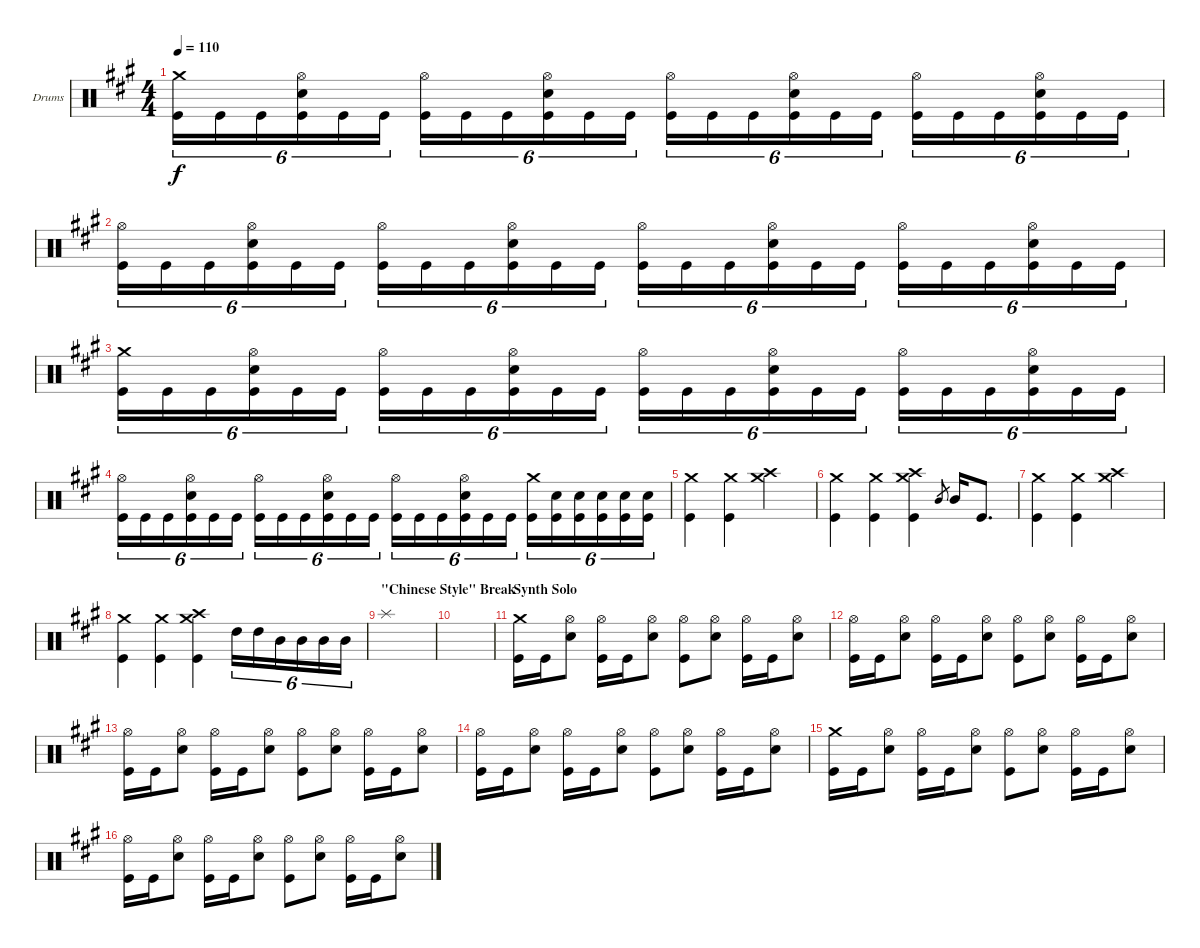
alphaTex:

\bracketExtendMode groupsimilarinstruments
\firstSystemTrackNameOrientation horizontal
\otherSystemsTrackNameOrientation horizontal
\track ("Drumkit" "Drums") {instrument percussion}
\staff {score}
\articulation defaults
\ts (4 4)
\tempo 110
\clef neutral
\ks a
("Kick (hit)" "Crash medium (hit)").16{tu (6 4) dy f} "Kick (hit)".16{tu (6 4)} "Kick (hit)".16{tu (6 4)} ("Snare (hit) 2" "Kick (hit)" "Hi-Hat (open)").16{tu (6 4)} "Kick (hit)".16{tu (6 4)} "Kick (hit)".16{tu (6 4)} ("Kick (hit)" "Hi-Hat (open)").16{tu (6 4)} "Kick (hit)".16{tu (6 4)} "Kick (hit)".16{tu (6 4)} ("Snare (hit) 2" "Kick (hit)" "Hi-Hat (open)").16{tu (6 4)} "Kick (hit)".16{tu (6 4)} "Kick (hit)".16{tu (6 4)} ("Kick (hit)" "Hi-Hat (open)").16{tu (6 4)} "Kick (hit)".16{tu (6 4)} "Kick (hit)".16{tu (6 4)} ("Snare (hit) 2" "Kick (hit)" "Hi-Hat (open)").16{tu (6 4)} "Kick (hit)".16{tu (6 4)} "Kick (hit)".16{tu (6 4)} ("Kick (hit)" "Hi-Hat (open)").16{tu (6 4)} "Kick (hit)".16{tu (6 4)} "Kick (hit)".16{tu (6 4)} ("Snare (hit) 2" "Kick (hit)" "Hi-Hat (open)").16{tu (6 4)} "Kick (hit)".16{tu (6 4)} "Kick (hit)".16{tu (6 4)} |
("Kick (hit)" "Hi-Hat (open)").16{tu (6 4)} "Kick (hit)".16{tu (6 4)} "Kick (hit)".16{tu (6 4)} ("Snare (hit) 2" "Kick (hit)" "Hi-Hat (open)").16{tu (6 4)} "Kick (hit)".16{tu (6 4)} "Kick (hit)".16{tu (6 4)} ("Kick (hit)" "Hi-Hat (open)").16{tu (6 4)} "Kick (hit)".16{tu (6 4)} "Kick (hit)".16{tu (6 4)} ("Snare (hit) 2" "Kick (hit)" "Hi-Hat (open)").16{tu (6 4)} "Kick (hit)".16{tu (6 4)} "Kick (hit)".16{tu (6 4)} ("Kick (hit)" "Hi-Hat (open)").16{tu (6 4)} "Kick (hit)".16{tu (6 4)} "Kick (hit)".16{tu (6 4)} ("Snare (hit) 2" "Kick (hit)" "Hi-Hat (open)").16{tu (6 4)} "Kick (hit)".16{tu (6 4)} "Kick (hit)".16{tu (6 4)} ("Kick (hit)" "Hi-Hat (open)").16{tu (6 4)} "Kick (hit)".16{tu (6 4)} "Kick (hit)".16{tu (6 4)} ("Snare (hit) 2" "Kick (hit)" "Hi-Hat (open)").16{tu (6 4)} "Kick (hit)".16{tu (6 4)} "Kick (hit)".16{tu (6 4)} |
("Kick (hit)" "Crash medium (hit)").16{tu (6 4)} "Kick (hit)".16{tu (6 4)} "Kick (hit)".16{tu (6 4)} ("Snare (hit) 2" "Kick (hit)" "Hi-Hat (open)").16{tu (6 4)} "Kick (hit)".16{tu (6 4)} "Kick (hit)".16{tu (6 4)} ("Kick (hit)" "Hi-Hat (open)").16{tu (6 4)} "Kick (hit)".16{tu (6 4)} "Kick (hit)".16{tu (6 4)} ("Snare (hit) 2" "Kick (hit)" "Hi-Hat (open)").16{tu (6 4)} "Kick (hit)".16{tu (6 4)} "Kick (hit)".16{tu (6 4)} ("Kick (hit)" "Hi-Hat (open)").16{tu (6 4)} "Kick (hit)".16{tu (6 4)} "Kick (hit)".16{tu (6 4)} ("Snare (hit) 2" "Kick (hit)" "Hi-Hat (open)").16{tu (6 4)} "Kick (hit)".16{tu (6 4)} "Kick (hit)".16{tu (6 4)} ("Kick (hit)" "Hi-Hat (open)").16{tu (6 4)} "Kick (hit)".16{tu (6 4)} "Kick (hit)".16{tu (6 4)} ("Snare (hit) 2" "Kick (hit)" "Hi-Hat (open)").16{tu (6 4)} "Kick (hit)".16{tu (6 4)} "Kick (hit)".16{tu (6 4)} |
("Kick (hit)" "Hi-Hat (open)").16{tu (6 4)} "Kick (hit)".16{tu (6 4)} "Kick (hit)".16{tu (6 4)} ("Snare (hit) 2" "Kick (hit)" "Hi-Hat (open)").16{tu (6 4)} "Kick (hit)".16{tu (6 4)} "Kick (hit)".16{tu (6 4)} ("Kick (hit)" "Hi-Hat (open)").16{tu (6 4)} "Kick (hit)".16{tu (6 4)} "Kick (hit)".16{tu (6 4)} ("Snare (hit) 2" "Kick (hit)" "Hi-Hat (open)").16{tu (6 4)} "Kick (hit)".16{tu (6 4)} "Kick (hit)".16{tu (6 4)} ("Kick (hit)" "Hi-Hat (open)").16{tu (6 4)} "Kick (hit)".16{tu (6 4)} "Kick (hit)".16{tu (6 4)} ("Snare (hit) 2" "Kick (hit)" "Hi-Hat (open)").16{tu (6 4)} "Kick (hit)".16{tu (6 4)} "Kick (hit)".16{tu (6 4)} ("Kick (hit)" "Crash medium (hit)").16{tu (6 4)} ("Kick (hit)" "Snare (hit) 2").16{tu (6 4)} ("Kick (hit)" "Snare (hit) 2").16{tu (6 4)} ("Snare (hit) 2" "Kick (hit)").16{tu (6 4)} ("Kick (hit)" "Snare (hit) 2").16{tu (6 4)} ("Kick (hit)" "Snare (hit) 2").16{tu (6 4)} |
("Crash medium (hit)" "Kick (hit)").4 ("Crash medium (hit)" "Kick (hit)").4 ("Crash high (hit)" "Crash medium (hit)").2 |
("Crash medium (hit)" "Kick (hit)").4 ("Crash medium (hit)" "Kick (hit)").4 ("Crash high (hit)" "Crash medium (hit)" "Kick (hit)").4 "Mid Tom (hit)".8{gr} "Mid Tom (hit)".16 "Kick (hit)".8{d} |
("Crash medium (hit)" "Kick (hit)").4 ("Crash medium (hit)" "Kick (hit)").4 ("Crash high (hit)" "Crash medium (hit)").2 |
("Crash medium (hit)" "Kick (hit)").4 ("Crash medium (hit)" "Kick (hit)").4 ("Crash high (hit)" "Crash medium (hit)" "Kick (hit)").4 "High Tom (hit)".16{tu (6 4)} "High Tom (hit)".16{tu (6 4)} "Mid Tom (hit)".16{tu (6 4)} "Mid Tom (hit)".16{tu (6 4)} "Mid Tom (hit)".16{tu (6 4)} "Mid Tom (hit)".16{tu (6 4)} |
\section ("" "\"Chinese Style\" Break")
"Splash (hit)".1 |
|
\section ("" "Synth Solo")
("Crash medium (hit)" "Kick (hit)").16 "Kick (hit)".16 ("Snare (hit) 2" "Hi-Hat (open)").8 ("Kick (hit)" "Hi-Hat (open)").16 "Kick (hit)".16 ("Snare (hit) 2" "Hi-Hat (open)").8 ("Kick (hit)" "Hi-Hat (open)").8 ("Snare (hit) 2" "Hi-Hat (open)").8 ("Kick (hit)" "Hi-Hat (open)").16 "Kick (hit)".16 ("Snare (hit) 2" "Hi-Hat (open)").8 |
("Kick (hit)" "Hi-Hat (open)").16 "Kick (hit)".16 ("Snare (hit) 2" "Hi-Hat (open)").8 ("Kick (hit)" "Hi-Hat (open)").16 "Kick (hit)".16 ("Snare (hit) 2" "Hi-Hat (open)").8 ("Kick (hit)" "Hi-Hat (open)").8 ("Snare (hit) 2" "Hi-Hat (open)").8 ("Kick (hit)" "Hi-Hat (open)").16 "Kick (hit)".16 ("Snare (hit) 2" "Hi-Hat (open)").8 |
("Kick (hit)" "Hi-Hat (open)").16 "Kick (hit)".16 ("Snare (hit) 2" "Hi-Hat (open)").8 ("Kick (hit)" "Hi-Hat (open)").16 "Kick (hit)".16 ("Snare (hit) 2" "Hi-Hat (open)").8 ("Kick (hit)" "Hi-Hat (open)").8 ("Snare (hit) 2" "Hi-Hat (open)").8 ("Kick (hit)" "Hi-Hat (open)").16 "Kick (hit)".16 ("Snare (hit) 2" "Hi-Hat (open)").8 |
("Kick (hit)" "Hi-Hat (open)").16 "Kick (hit)".16 ("Snare (hit) 2" "Hi-Hat (open)").8 ("Kick (hit)" "Hi-Hat (open)").16 "Kick (hit)".16 ("Snare (hit) 2" "Hi-Hat (open)").8 ("Kick (hit)" "Hi-Hat (open)").8 ("Snare (hit) 2" "Hi-Hat (open)").8 ("Kick (hit)" "Hi-Hat (open)").16 "Kick (hit)".16 ("Snare (hit) 2" "Hi-Hat (open)").8 |
("Crash medium (hit)" "Kick (hit)").16 "Kick (hit)".16 ("Snare (hit) 2" "Hi-Hat (open)").8 ("Kick (hit)" "Hi-Hat (open)").16 "Kick (hit)".16 ("Snare (hit) 2" "Hi-Hat (open)").8 ("Kick (hit)" "Hi-Hat (open)").8 ("Snare (hit) 2" "Hi-Hat (open)").8 ("Kick (hit)" "Hi-Hat (open)").16 "Kick (hit)".16 ("Snare (hit) 2" "Hi-Hat (open)").8 |
("Kick (hit)" "Hi-Hat (open)").16 "Kick (hit)".16 ("Snare (hit) 2" "Hi-Hat (open)").8 ("Kick (hit)" "Hi-Hat (open)").16 "Kick (hit)".16 ("Snare (hit) 2" "Hi-Hat (open)").8 ("Kick (hit)" "Hi-Hat (open)").8 ("Snare (hit) 2" "Hi-Hat (open)").8 ("Kick (hit)" "Hi-Hat (open)").16 "Kick (hit)".16 ("Snare (hit) 2" "Hi-Hat (open)").8
